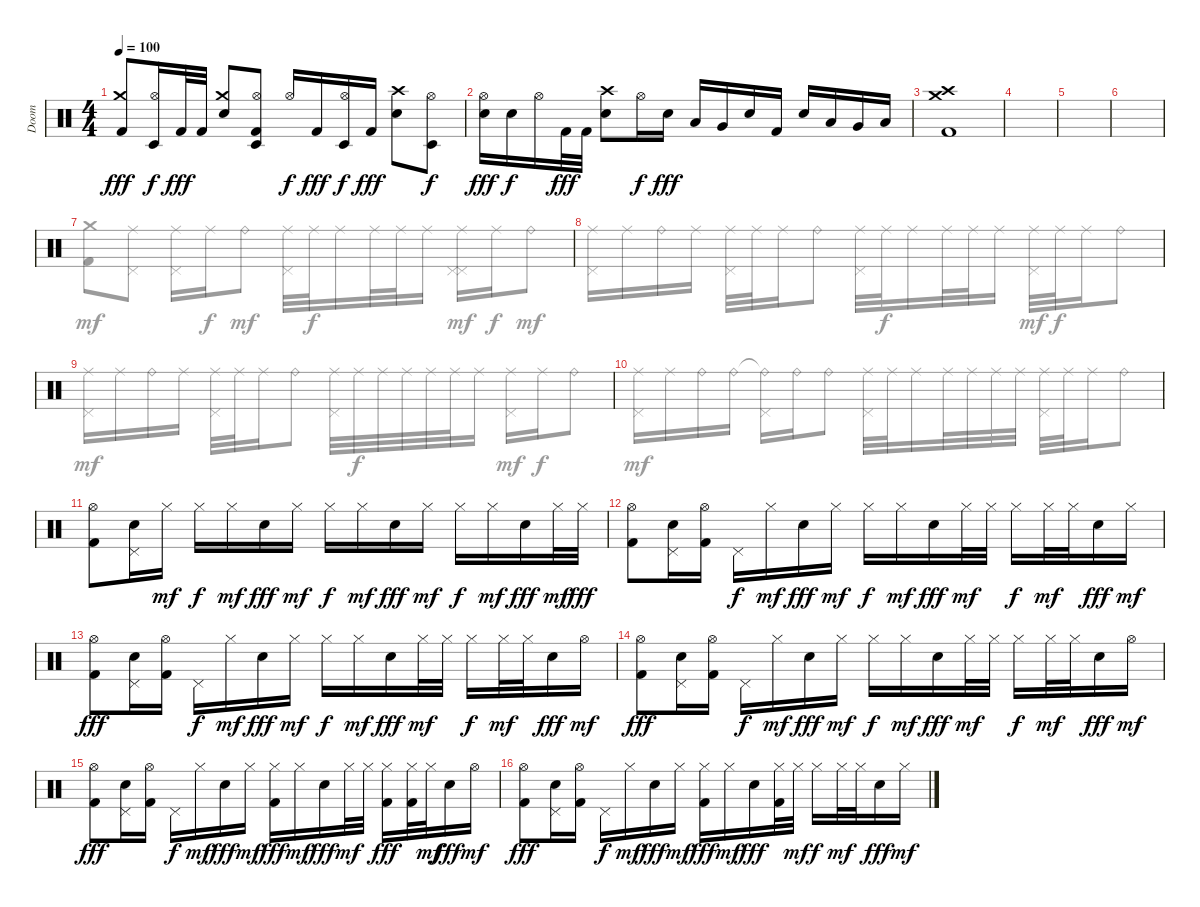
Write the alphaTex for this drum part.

\track ("Doom" "Doom") {instrument percussion}
\staff {score}
\articulation defaults
\voice
\ts (4 4)
\tempo 100
\clef neutral
\ks c
("Crash medium (hit)" "Kick (hit) 2").8{dy fff} ("Hi-Hat (open)" "Timbale low (hit)").16{dy f} "Kick (hit) 2".32{dy fff} "Kick (hit) 2".32 ("Crash medium (hit)" "Electric Snare (hit)").8 ("Hi-Hat (open)" "Timbale low (hit)" "Kick (hit) 2").8 "Hi-Hat (open)".16{dy f} "Kick (hit) 2".16{dy fff} ("Hi-Hat (open)" "Timbale low (hit)").16{dy f} "Kick (hit) 2".16{dy fff} ("Crash high (hit)" "Electric Snare (hit)").8 ("Hi-Hat (open)" "Timbale low (hit)").8{dy f} |
("Hi-Hat (open)" "Electric Snare (hit)").16{dy fff} "Electric Snare (hit)".16{dy f} "Hi-Hat (open)".16 "Kick (hit) 2".32{dy fff} "Kick (hit) 2".32 ("Crash high (hit)" "Electric Snare (hit)").8 "Hi-Hat (open)".16{dy f} "Electric Snare (hit)".16{dy fff} "Low Tom (hit)".16 "Very Low Tom (hit)".16 "Electric Snare (hit)".16 "Kick (hit) 2".16 "Electric Snare (hit)".16 "Low Tom (hit)".16 "Very Low Tom (hit)".16 "Low Floor Tom (hit)".16 |
("Crash medium (hit)" "Crash high (hit)" "Kick (hit) 2").1 |
|
|
|
|
|
|
|
("Hi-Hat (open)" "Kick (hit) 2").8 ("Electric Snare (hit)" "Pedal Hi-Hat (hit)").16 "Hi-Hat (closed)".16{dy mf} "Hi-Hat (closed)".16{dy f} "Hi-Hat (closed)".16{dy mf} "Electric Snare (hit)".16{dy fff} "Hi-Hat (closed)".16{dy mf} "Hi-Hat (closed)".16{dy f} "Hi-Hat (closed)".16{dy mf} "Electric Snare (hit)".16{dy fff} "Hi-Hat (closed)".16{dy mf} "Hi-Hat (closed)".16{dy f} "Hi-Hat (closed)".16{dy mf} "Electric Snare (hit)".16{dy fff} "Hi-Hat (closed)".32{dy mf} "Hi-Hat (closed)".32{dy fff} |
("Hi-Hat (open)" "Kick (hit) 2").8 ("Electric Snare (hit)" "Pedal Hi-Hat (hit)").16 ("Hi-Hat (open)" "Kick (hit) 2").16 "Pedal Hi-Hat (hit)".16{dy f} "Hi-Hat (closed)".16{dy mf} "Electric Snare (hit)".16{dy fff} "Hi-Hat (closed)".16{dy mf} "Hi-Hat (closed)".16{dy f} "Hi-Hat (closed)".16{dy mf} "Electric Snare (hit)".16{dy fff} "Hi-Hat (closed)".32{dy mf} "Hi-Hat (closed)".32 "Hi-Hat (closed)".16{dy f} "Hi-Hat (closed)".32{dy mf} "Hi-Hat (closed)".32 "Electric Snare (hit)".16{dy fff} "Hi-Hat (closed)".16{dy mf} |
("Hi-Hat (open)" "Kick (hit) 2").8{dy fff} ("Electric Snare (hit)" "Pedal Hi-Hat (hit)").16 ("Hi-Hat (open)" "Kick (hit) 2").16 "Pedal Hi-Hat (hit)".16{dy f} "Hi-Hat (closed)".16{dy mf} "Electric Snare (hit)".16{dy fff} "Hi-Hat (closed)".16{dy mf} "Hi-Hat (closed)".16{dy f} "Hi-Hat (closed)".16{dy mf} "Electric Snare (hit)".16{dy fff} "Hi-Hat (closed)".32{dy mf} "Hi-Hat (closed)".32 "Hi-Hat (closed)".16{dy f} "Hi-Hat (closed)".32{dy mf} "Hi-Hat (closed)".32 "Electric Snare (hit)".16{dy fff} "Hi-Hat (open)".16{dy mf} |
("Hi-Hat (open)" "Kick (hit) 2").8{dy fff} ("Electric Snare (hit)" "Pedal Hi-Hat (hit)").16 ("Hi-Hat (open)" "Kick (hit) 2").16 "Pedal Hi-Hat (hit)".16{dy f} "Hi-Hat (closed)".16{dy mf} "Electric Snare (hit)".16{dy fff} "Hi-Hat (closed)".16{dy mf} "Hi-Hat (closed)".16{dy f} "Hi-Hat (closed)".16{dy mf} "Electric Snare (hit)".16{dy fff} "Hi-Hat (closed)".32{dy mf} "Hi-Hat (closed)".32 "Hi-Hat (closed)".16{dy f} "Hi-Hat (closed)".32{dy mf} "Hi-Hat (closed)".32 "Electric Snare (hit)".16{dy fff} "Hi-Hat (open)".16{dy mf} |
("Hi-Hat (open)" "Kick (hit) 2").8{dy fff} ("Electric Snare (hit)" "Pedal Hi-Hat (hit)").16 ("Hi-Hat (open)" "Kick (hit) 2").16 "Pedal Hi-Hat (hit)".16{dy f} "Hi-Hat (closed)".16{dy mf} "Electric Snare (hit)".16{dy fff} "Hi-Hat (closed)".16{dy mf} ("Hi-Hat (closed)" "Kick (hit) 2").16{dy fff} "Hi-Hat (closed)".16{dy mf} "Electric Snare (hit)".16{dy fff} "Hi-Hat (closed)".32{dy mf} "Hi-Hat (closed)".32 ("Hi-Hat (closed)" "Kick (hit) 2").16{dy fff} ("Hi-Hat (closed)" "Kick (hit) 2").32 "Hi-Hat (closed)".32{dy mf} "Electric Snare (hit)".16{dy fff} "Hi-Hat (open)".16{dy mf} |
("Hi-Hat (open)" "Kick (hit) 2").8{dy fff} ("Electric Snare (hit)" "Pedal Hi-Hat (hit)").16 ("Hi-Hat (open)" "Kick (hit) 2").16 "Pedal Hi-Hat (hit)".16{dy f} "Hi-Hat (closed)".16{dy mf} "Electric Snare (hit)".16{dy fff} "Hi-Hat (closed)".16{dy mf} ("Hi-Hat (closed)" "Kick (hit) 2").16{dy fff} "Hi-Hat (closed)".16{dy mf} "Electric Snare (hit)".16{dy fff} ("Hi-Hat (closed)" "Kick (hit) 2").32 "Hi-Hat (closed)".32{dy mf} "Hi-Hat (closed)".16{dy f} "Hi-Hat (closed)".32{dy mf} "Hi-Hat (closed)".32 "Electric Snare (hit)".16{dy fff} "Hi-Hat (closed)".16{dy mf}
\voice
\clef neutral
\ottava regular
\simile none
\ks c
|
|
|
|
|
|
("Crash medium (hit)" "Kick (hit) 2").8 ("Pedal Hi-Hat (hit)" "Ride (middle)").8{dy mf} ("Ride (middle)" "Pedal Hi-Hat (hit)").16 "Ride (middle)".16{dy f} "Ride (bell)".8{dy mf} ("Ride (middle)" "Pedal Hi-Hat (hit)").32 "Ride (middle)".32{dy f} "Ride (middle)".16 "Ride (middle)".32 "Ride (middle)".32 "Ride (middle)".16 ("Pedal Hi-Hat (hit)" "Ride (middle)" "Pedal Hi-Hat (hit)").16{dy mf} "Ride (middle)".16{dy f} "Ride (bell)".8{dy mf} |
("Ride (middle)" "Pedal Hi-Hat (hit)").16 "Ride (middle)".16 "Ride (bell)".16 "Ride (middle)".16 ("Ride (middle)" "Pedal Hi-Hat (hit)").32 "Ride (middle)".32 "Ride (middle)".16 "Ride (bell)".8 ("Ride (middle)" "Pedal Hi-Hat (hit)").32 "Ride (middle)".32{dy f} "Ride (middle)".16 "Ride (middle)".32 "Ride (middle)".32 "Ride (middle)".16 ("Ride (middle)" "Pedal Hi-Hat (hit)").32{dy mf} "Ride (middle)".32{dy f} "Ride (middle)".16 "Ride (bell)".8 |
("Ride (middle)" "Pedal Hi-Hat (hit)").16{dy mf} "Ride (middle)".16 "Ride (bell)".16 "Ride (middle)".16 ("Ride (middle)" "Pedal Hi-Hat (hit)").32 "Ride (middle)".32 "Ride (middle)".16 "Ride (bell)".8 ("Ride (middle)" "Pedal Hi-Hat (hit)").32 "Ride (middle)".32{dy f} "Ride (middle)".32 "Ride (middle)".32 "Ride (middle)".32 "Ride (middle)".32 "Ride (middle)".16 ("Ride (middle)" "Pedal Hi-Hat (hit)").16{dy mf} "Ride (middle)".16{dy f} "Ride (bell)".8 |
("Ride (middle)" "Pedal Hi-Hat (hit)").16{dy mf} "Ride (middle)".16 "Ride (bell)".16 "Ride (bell)".16 ("Ride (bell)"{t} "Pedal Hi-Hat (hit)").16 "Ride (bell)".16 "Ride (bell)".8 ("Ride (middle)" "Pedal Hi-Hat (hit)").32 "Ride (middle)".32 "Ride (middle)".16 "Ride (middle)".32 "Ride (middle)".32 "Ride (middle)".32 "Ride (middle)".32 ("Ride (middle)" "Pedal Hi-Hat (hit)").32 "Ride (middle)".32 "Ride (middle)".16 "Ride (bell)".8 |
|
|
|
|
|
